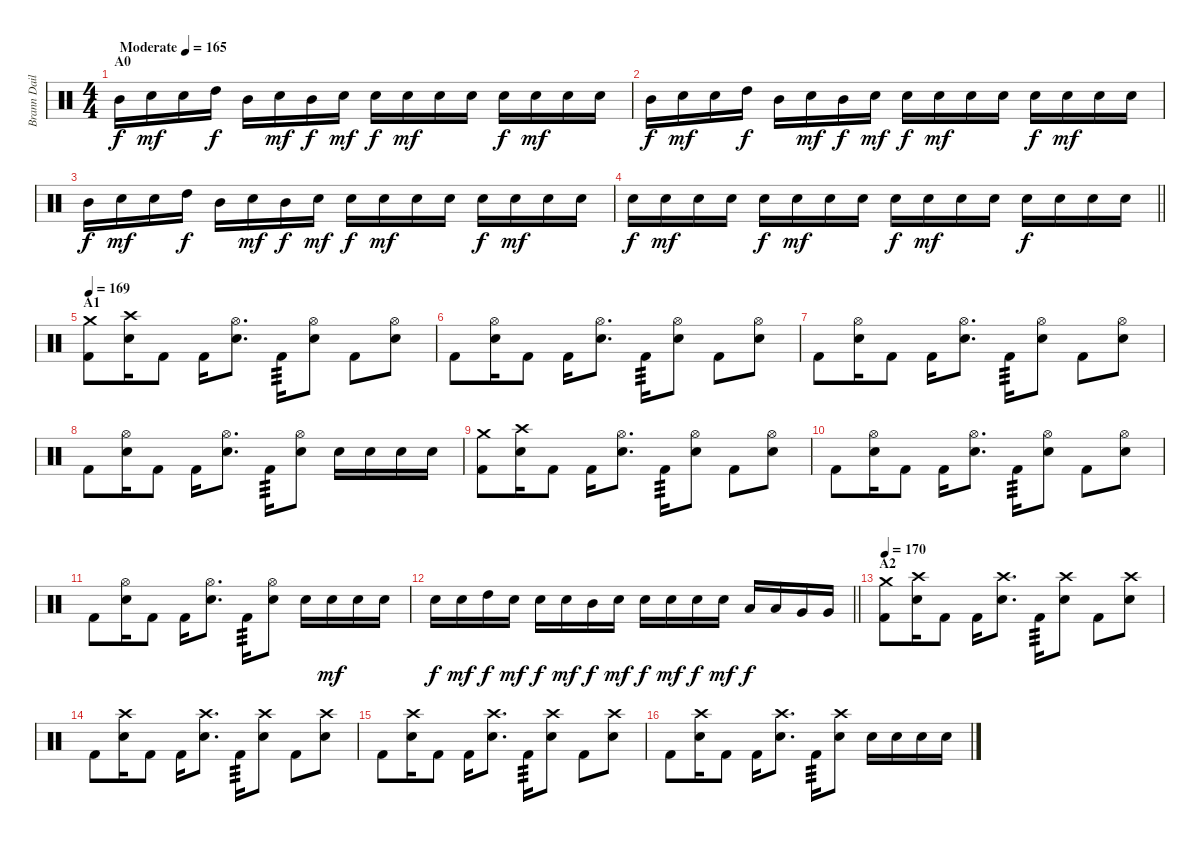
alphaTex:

\track ("Brann Dailor" "Brann Dail") {instrument percussion}
\staff {score}
\articulation defaults
\ts (4 4)
\section ("" "A0")
\tempo (165 "Moderate")
\tempo 193
\tempo (165 "Moderate")
\clef neutral
\ks c "Mid Tom (hit)".16{dy f} "Snare (hit) 2".16{dy mf} "Snare (hit) 2".16 "High Tom (hit)".16{dy f} "Mid Tom (hit)".16 "Snare (hit) 2".16{dy mf} "Mid Tom (hit)".16{dy f} "Snare (hit) 2".16{dy mf} "Snare (hit) 2".16{dy f} "Snare (hit) 2".16{dy mf} "Snare (hit) 2".16 "Snare (hit) 2".16 "Snare (hit) 2".16{dy f} "Snare (hit) 2".16{dy mf} "Snare (hit) 2".16 "Snare (hit) 2".16
|
"Mid Tom (hit)".16{dy f} "Snare (hit) 2".16{dy mf} "Snare (hit) 2".16 "High Tom (hit)".16{dy f} "Mid Tom (hit)".16 "Snare (hit) 2".16{dy mf} "Mid Tom (hit)".16{dy f} "Snare (hit) 2".16{dy mf} "Snare (hit) 2".16{dy f} "Snare (hit) 2".16{dy mf} "Snare (hit) 2".16 "Snare (hit) 2".16 "Snare (hit) 2".16{dy f} "Snare (hit) 2".16{dy mf} "Snare (hit) 2".16 "Snare (hit) 2".16 |
"Mid Tom (hit)".16{dy f} "Snare (hit) 2".16{dy mf} "Snare (hit) 2".16 "High Tom (hit)".16{dy f} "Mid Tom (hit)".16 "Snare (hit) 2".16{dy mf} "Mid Tom (hit)".16{dy f} "Snare (hit) 2".16{dy mf} "Snare (hit) 2".16{dy f} "Snare (hit) 2".16{dy mf} "Snare (hit) 2".16 "Snare (hit) 2".16 "Snare (hit) 2".16{dy f} "Snare (hit) 2".16{dy mf} "Snare (hit) 2".16 "Snare (hit) 2".16 |
\barLineRight lightlight "Snare (hit) 2".16{dy f} "Snare (hit) 2".16{dy mf} "Snare (hit) 2".16 "Snare (hit) 2".16 "Snare (hit) 2".16{dy f} "Snare (hit) 2".16{dy mf} "Snare (hit) 2".16 "Snare (hit) 2".16 "Snare (hit) 2".16{dy f} "Snare (hit) 2".16{dy mf} "Snare (hit) 2".16 "Snare (hit) 2".16 "Snare (hit) 2".16{dy f} "Snare (hit) 2".16 "Snare (hit) 2".16 "Snare (hit) 2".16
|
\section ("" "A1")
\tempo 169
("Crash medium (hit)" "Kick (hit) 2").8 ("Crash high (hit)" "Snare (hit) 2").16 "Kick (hit) 2".8 "Kick (hit) 2".16 ("Hi-Hat (open)" "Snare (hit) 2").8{d} "Kick (hit) 2".16{tp 3} ("Hi-Hat (open)" "Snare (hit) 2").8 "Kick (hit) 2".8 ("Hi-Hat (open)" "Snare (hit) 2").8 |
"Kick (hit) 2".8 ("Hi-Hat (open)" "Snare (hit) 2").16 "Kick (hit) 2".8 "Kick (hit) 2".16 ("Hi-Hat (open)" "Snare (hit) 2").8{d} "Kick (hit) 2".16{tp 3} ("Hi-Hat (open)" "Snare (hit) 2").8 "Kick (hit) 2".8 ("Hi-Hat (open)" "Snare (hit) 2").8 |
"Kick (hit) 2".8 ("Hi-Hat (open)" "Snare (hit) 2").16 "Kick (hit) 2".8 "Kick (hit) 2".16 ("Hi-Hat (open)" "Snare (hit) 2").8{d} "Kick (hit) 2".16{tp 3} ("Hi-Hat (open)" "Snare (hit) 2").8 "Kick (hit) 2".8 ("Hi-Hat (open)" "Snare (hit) 2").8 |
"Kick (hit) 2".8 ("Hi-Hat (open)" "Snare (hit) 2").16 "Kick (hit) 2".8 "Kick (hit) 2".16 ("Hi-Hat (open)" "Snare (hit) 2").8{d} "Kick (hit) 2".16{tp 3} ("Hi-Hat (open)" "Snare (hit) 2").8 "Snare (hit) 2".16 "Snare (hit) 2".16 "Snare (hit) 2".16 "Snare (hit) 2".16 |
("Crash medium (hit)" "Kick (hit) 2").8 ("Crash high (hit)" "Snare (hit) 2").16 "Kick (hit) 2".8 "Kick (hit) 2".16 ("Hi-Hat (open)" "Snare (hit) 2").8{d} "Kick (hit) 2".16{tp 3} ("Hi-Hat (open)" "Snare (hit) 2").8 "Kick (hit) 2".8 ("Hi-Hat (open)" "Snare (hit) 2").8 |
"Kick (hit) 2".8 ("Hi-Hat (open)" "Snare (hit) 2").16 "Kick (hit) 2".8 "Kick (hit) 2".16 ("Hi-Hat (open)" "Snare (hit) 2").8{d} "Kick (hit) 2".16{tp 3} ("Hi-Hat (open)" "Snare (hit) 2").8 "Kick (hit) 2".8 ("Hi-Hat (open)" "Snare (hit) 2").8 |
"Kick (hit) 2".8 ("Hi-Hat (open)" "Snare (hit) 2").16 "Kick (hit) 2".8 "Kick (hit) 2".16 ("Hi-Hat (open)" "Snare (hit) 2").8{d} "Kick (hit) 2".16{tp 3} ("Hi-Hat (open)" "Snare (hit) 2").8 "Snare (hit) 2".16 "Snare (hit) 2".16{dy mf} "Snare (hit) 2".16 "Snare (hit) 2".16 |
\barLineRight lightlight "Snare (hit) 2".16{dy f} "Snare (hit) 2".16{dy mf} "High Tom (hit)".16{dy f} "Snare (hit) 2".16{dy mf} "Snare (hit) 2".16{dy f} "Snare (hit) 2".16{dy mf} "Mid Tom (hit)".16{dy f} "Snare (hit) 2".16{dy mf} "Snare (hit) 2".16{dy f} "Snare (hit) 2".16{dy mf} "Snare (hit) 2".16{dy f} "Snare (hit) 2".16{dy mf} "Low Tom (hit)".16{dy f} "Low Tom (hit)".16 "Very Low Tom (hit)".16 "Very Low Tom (hit)".16
|
\section ("" "A2")
\tempo 170
("Crash medium (hit)" "Kick (hit) 2").8 ("Crash high (hit)" "Snare (hit) 2").16 "Kick (hit) 2".8 "Kick (hit) 2".16 ("Crash high (hit)" "Snare (hit) 2").8{d} "Kick (hit) 2".16{tp 3} ("Crash high (hit)" "Snare (hit) 2").8 "Kick (hit) 2".8 ("Crash high (hit)" "Snare (hit) 2").8 |
"Kick (hit) 2".8 ("Crash high (hit)" "Snare (hit) 2").16 "Kick (hit) 2".8 "Kick (hit) 2".16 ("Crash high (hit)" "Snare (hit) 2").8{d} "Kick (hit) 2".16{tp 3} ("Crash high (hit)" "Snare (hit) 2").8 "Kick (hit) 2".8 ("Crash high (hit)" "Snare (hit) 2").8 |
"Kick (hit) 2".8 ("Crash high (hit)" "Snare (hit) 2").16 "Kick (hit) 2".8 "Kick (hit) 2".16 ("Crash high (hit)" "Snare (hit) 2").8{d} "Kick (hit) 2".16{tp 3} ("Crash high (hit)" "Snare (hit) 2").8 "Kick (hit) 2".8 ("Crash high (hit)" "Snare (hit) 2").8 |
"Kick (hit) 2".8 ("Crash high (hit)" "Snare (hit) 2").16 "Kick (hit) 2".8 "Kick (hit) 2".16 ("Crash high (hit)" "Snare (hit) 2").8{d} "Kick (hit) 2".16{tp 3} ("Crash high (hit)" "Snare (hit) 2").8 "Snare (hit) 2".16 "Snare (hit) 2".16 "Snare (hit) 2".16 "Snare (hit) 2".16
